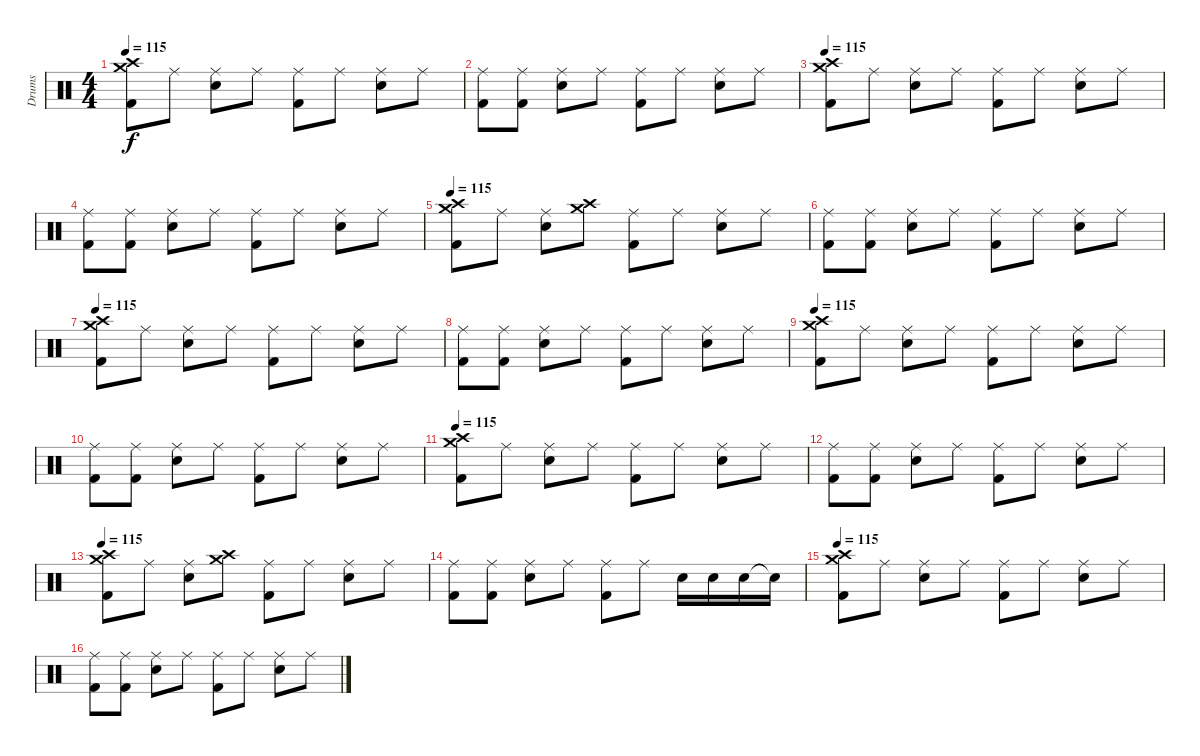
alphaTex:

\track ("Drums" "Drums") {instrument percussion}
\staff {score}
\articulation defaults
\ts (4 4)
\tempo 115
\clef neutral
\ks c
("Crash high (hit)" "Crash medium (hit)" "Kick (hit) 2").8{dy f} "Ride (middle)".8 ("Ride (middle)" "Electric Snare (hit)").8 "Ride (middle)".8 ("Ride (middle)" "Kick (hit) 2").8 "Ride (middle)".8 ("Ride (middle)" "Electric Snare (hit)").8 "Ride (middle)".8 |
("Ride (middle)" "Kick (hit) 2").8 ("Ride (middle)" "Kick (hit) 2").8 ("Ride (middle)" "Electric Snare (hit)").8 "Ride (middle)".8 ("Ride (middle)" "Kick (hit) 2").8 "Ride (middle)".8 ("Ride (middle)" "Electric Snare (hit)").8 "Ride (middle)".8 |
\tempo 115
("Crash high (hit)" "Crash medium (hit)" "Kick (hit) 2").8 "Ride (middle)".8 ("Ride (middle)" "Electric Snare (hit)").8 "Ride (middle)".8 ("Ride (middle)" "Kick (hit) 2").8 "Ride (middle)".8 ("Ride (middle)" "Electric Snare (hit)").8 "Ride (middle)".8 |
("Ride (middle)" "Kick (hit) 2").8 ("Ride (middle)" "Kick (hit) 2").8 ("Ride (middle)" "Electric Snare (hit)").8 "Ride (middle)".8 ("Ride (middle)" "Kick (hit) 2").8 "Ride (middle)".8 ("Ride (middle)" "Electric Snare (hit)").8 "Ride (middle)".8 |
\tempo 115
("Crash high (hit)" "Crash medium (hit)" "Kick (hit) 2").8 "Ride (middle)".8 ("Ride (middle)" "Electric Snare (hit)").8 ("Crash high (hit)" "Crash medium (hit)").8 ("Ride (middle)" "Kick (hit) 2").8 "Ride (middle)".8 ("Ride (middle)" "Electric Snare (hit)").8 "Ride (middle)".8 |
("Ride (middle)" "Kick (hit) 2").8 ("Ride (middle)" "Kick (hit) 2").8 ("Ride (middle)" "Electric Snare (hit)").8 "Ride (middle)".8 ("Ride (middle)" "Kick (hit) 2").8 "Ride (middle)".8 ("Ride (middle)" "Electric Snare (hit)").8 "Ride (middle)".8 |
\tempo 115
("Crash high (hit)" "Crash medium (hit)" "Kick (hit) 2").8 "Ride (middle)".8 ("Ride (middle)" "Electric Snare (hit)").8 "Ride (middle)".8 ("Ride (middle)" "Kick (hit) 2").8 "Ride (middle)".8 ("Ride (middle)" "Electric Snare (hit)").8 "Ride (middle)".8 |
("Ride (middle)" "Kick (hit) 2").8 ("Ride (middle)" "Kick (hit) 2").8 ("Ride (middle)" "Electric Snare (hit)").8 "Ride (middle)".8 ("Ride (middle)" "Kick (hit) 2").8 "Ride (middle)".8 ("Ride (middle)" "Electric Snare (hit)").8 "Ride (middle)".8 |
\tempo 115
("Crash high (hit)" "Crash medium (hit)" "Kick (hit) 2").8 "Ride (middle)".8 ("Ride (middle)" "Electric Snare (hit)").8 "Ride (middle)".8 ("Ride (middle)" "Kick (hit) 2").8 "Ride (middle)".8 ("Ride (middle)" "Electric Snare (hit)").8 "Ride (middle)".8 |
("Ride (middle)" "Kick (hit) 2").8 ("Ride (middle)" "Kick (hit) 2").8 ("Ride (middle)" "Electric Snare (hit)").8 "Ride (middle)".8 ("Ride (middle)" "Kick (hit) 2").8 "Ride (middle)".8 ("Ride (middle)" "Electric Snare (hit)").8 "Ride (middle)".8 |
\tempo 115
("Crash high (hit)" "Crash medium (hit)" "Kick (hit) 2").8 "Ride (middle)".8 ("Ride (middle)" "Electric Snare (hit)").8 "Ride (middle)".8 ("Ride (middle)" "Kick (hit) 2").8 "Ride (middle)".8 ("Ride (middle)" "Electric Snare (hit)").8 "Ride (middle)".8 |
("Ride (middle)" "Kick (hit) 2").8 ("Ride (middle)" "Kick (hit) 2").8 ("Ride (middle)" "Electric Snare (hit)").8 "Ride (middle)".8 ("Ride (middle)" "Kick (hit) 2").8 "Ride (middle)".8 ("Ride (middle)" "Electric Snare (hit)").8 "Ride (middle)".8 |
\tempo 115
("Crash high (hit)" "Crash medium (hit)" "Kick (hit) 2").8 "Ride (middle)".8 ("Ride (middle)" "Electric Snare (hit)").8 ("Crash high (hit)" "Crash medium (hit)").8 ("Ride (middle)" "Kick (hit) 2").8 "Ride (middle)".8 ("Ride (middle)" "Electric Snare (hit)").8 "Ride (middle)".8 |
("Ride (middle)" "Kick (hit) 2").8 ("Ride (middle)" "Kick (hit) 2").8 ("Ride (middle)" "Electric Snare (hit)").8 "Ride (middle)".8 ("Ride (middle)" "Kick (hit) 2").8 "Ride (middle)".8 "Electric Snare (hit)".16 "Electric Snare (hit)".16 "Electric Snare (hit)".16 "Snare (hit)"{t}.16 |
\tempo 115
("Crash high (hit)" "Crash medium (hit)" "Kick (hit) 2").8{volume 0} "Ride (middle)".8 ("Ride (middle)" "Electric Snare (hit)").8 "Ride (middle)".8 ("Ride (middle)" "Kick (hit) 2").8 "Ride (middle)".8 ("Ride (middle)" "Electric Snare (hit)").8 "Ride (middle)".8 |
("Ride (middle)" "Kick (hit) 2").8 ("Ride (middle)" "Kick (hit) 2").8 ("Ride (middle)" "Electric Snare (hit)").8 "Ride (middle)".8 ("Ride (middle)" "Kick (hit) 2").8 "Ride (middle)".8 ("Ride (middle)" "Electric Snare (hit)").8 "Ride (middle)".8
